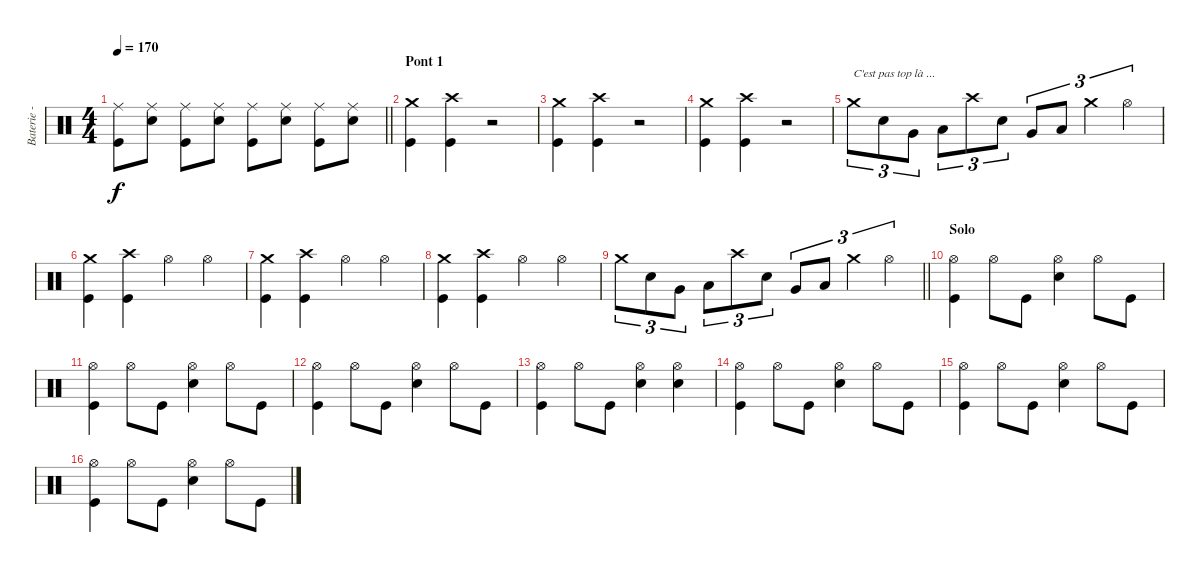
\track ("Baterie - Guillaume" "Baterie - ") {instrument percussion}
\staff {score}
\articulation defaults
\ts (4 4)
\tempo 170
\clef neutral
\barLineRight lightlight
\ks c
("Ride (middle)" "Kick (hit)").8{dy f} ("Ride (middle)" "Electric Snare (hit)").8 ("Ride (middle)" "Kick (hit)").8 ("Ride (middle)" "Electric Snare (hit)").8 ("Ride (middle)" "Kick (hit)").8 ("Ride (middle)" "Electric Snare (hit)").8 ("Ride (middle)" "Kick (hit)").8 ("Ride (middle)" "Electric Snare (hit)").8 |
\section ("" "Pont 1")
("Crash medium (hit)" "Kick (hit)").4 ("Crash high (hit)" "Kick (hit)").4 r.2 |
("Crash medium (hit)" "Kick (hit)").4 ("Crash high (hit)" "Kick (hit)").4 r.2 |
("Crash medium (hit)" "Kick (hit)").4 ("Crash high (hit)" "Kick (hit)").4 r.2 |
"Crash medium (hit)".8{tu (3 2) txt "C'est pas top là ... "} "Electric Snare (hit)".8{tu (3 2)} "Very Low Tom (hit)".8{tu (3 2)} "Low Tom (hit)".8{tu (3 2)} "Crash high (hit)".8{tu (3 2)} "Electric Snare (hit)".8{tu (3 2)} "Very Low Tom (hit)".8{tu (3 2)} "Low Tom (hit)".8{tu (3 2)} "Crash medium (hit)".4{tu (3 2)} "Hi-Hat (open)".4{tu (3 2)} |
("Crash medium (hit)" "Kick (hit)").4 ("Crash high (hit)" "Kick (hit)").4 "Hi-Hat (open)".4 "Hi-Hat (open)".4 |
("Crash medium (hit)" "Kick (hit)").4 ("Crash high (hit)" "Kick (hit)").4 "Hi-Hat (open)".4 "Hi-Hat (open)".4 |
("Crash medium (hit)" "Kick (hit)").4 ("Crash high (hit)" "Kick (hit)").4 "Hi-Hat (open)".4 "Hi-Hat (open)".4 |
\barLineRight lightlight "Crash medium (hit)".8{tu (3 2)} "Electric Snare (hit)".8{tu (3 2)} "Very Low Tom (hit)".8{tu (3 2)} "Low Tom (hit)".8{tu (3 2)} "Crash high (hit)".8{tu (3 2)} "Electric Snare (hit)".8{tu (3 2)} "Very Low Tom (hit)".8{tu (3 2)} "Low Tom (hit)".8{tu (3 2)} "Crash medium (hit)".4{tu (3 2)} "Hi-Hat (open)".4{tu (3 2)}
|
\section ("" "Solo")
("Hi-Hat (open)" "Kick (hit)").4 "Hi-Hat (open)".8 "Kick (hit)".8 ("Hi-Hat (open)" "Electric Snare (hit)").4 "Hi-Hat (open)".8 "Kick (hit)".8 |
("Hi-Hat (open)" "Kick (hit)").4 "Hi-Hat (open)".8 "Kick (hit)".8 ("Hi-Hat (open)" "Electric Snare (hit)").4 "Hi-Hat (open)".8 "Kick (hit)".8 |
("Hi-Hat (open)" "Kick (hit)").4 "Hi-Hat (open)".8 "Kick (hit)".8 ("Hi-Hat (open)" "Electric Snare (hit)").4 "Hi-Hat (open)".8 "Kick (hit)".8 |
("Hi-Hat (open)" "Kick (hit)").4 "Hi-Hat (open)".8 "Kick (hit)".8 ("Hi-Hat (open)" "Electric Snare (hit)").4 ("Hi-Hat (open)" "Electric Snare (hit)").4 |
("Hi-Hat (open)" "Kick (hit)").4 "Hi-Hat (open)".8 "Kick (hit)".8 ("Hi-Hat (open)" "Electric Snare (hit)").4 "Hi-Hat (open)".8 "Kick (hit)".8 |
("Hi-Hat (open)" "Kick (hit)").4 "Hi-Hat (open)".8 "Kick (hit)".8 ("Hi-Hat (open)" "Electric Snare (hit)").4 "Hi-Hat (open)".8 "Kick (hit)".8 |
("Hi-Hat (open)" "Kick (hit)").4 "Hi-Hat (open)".8 "Kick (hit)".8 ("Hi-Hat (open)" "Electric Snare (hit)").4 "Hi-Hat (open)".8 "Kick (hit)".8
